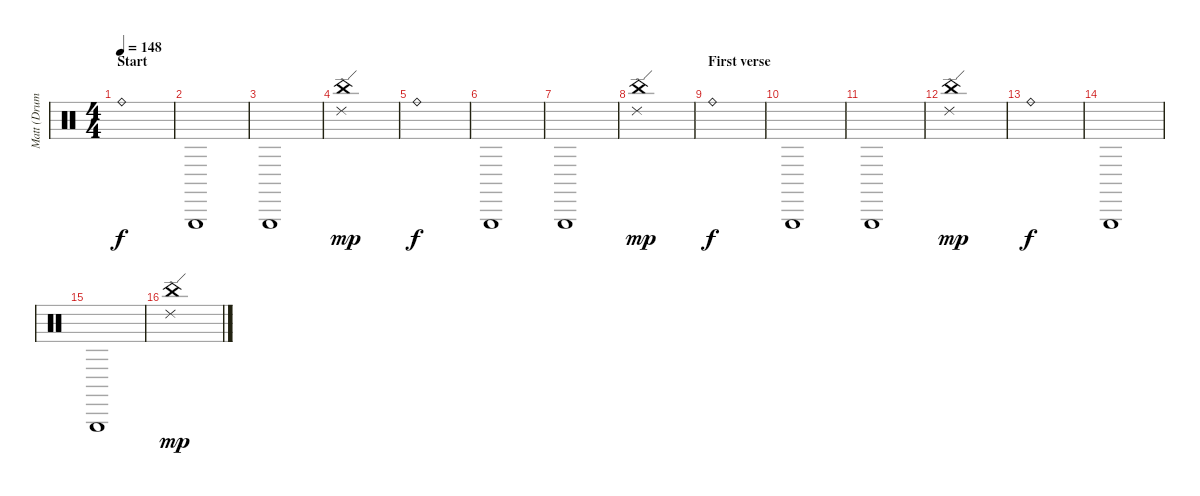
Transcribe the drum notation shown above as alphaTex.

\track ("Matt (Drums)" "Matt (Drum") {instrument percussion}
\staff {score}
\articulation defaults
\ts (4 4)
\section ("" "Start")
\tempo 148
\clef neutral
\ks c "Ride (bell)".1{dy f}
|
"Triangle (hit)".1 |
"Triangle (hit)".1{balance 14} |
("Ride (edge) 2" "China (hit)").1{dy mp balance 8} |
"Ride (bell)".1{dy f} |
"Triangle (hit)".1 |
"Triangle (hit)".1{balance 14} |
("Ride (edge) 2" "China (hit)").1{dy mp balance 8} |
\section ("" "First verse")
"Ride (bell)".1{dy f} |
"Triangle (hit)".1 |
"Triangle (hit)".1{balance 14} |
("Ride (edge) 2" "China (hit)").1{dy mp balance 8} |
"Ride (bell)".1{dy f} |
"Triangle (hit)".1 |
"Triangle (hit)".1{balance 14} |
("Ride (edge) 2" "China (hit)").1{dy mp balance 8}
